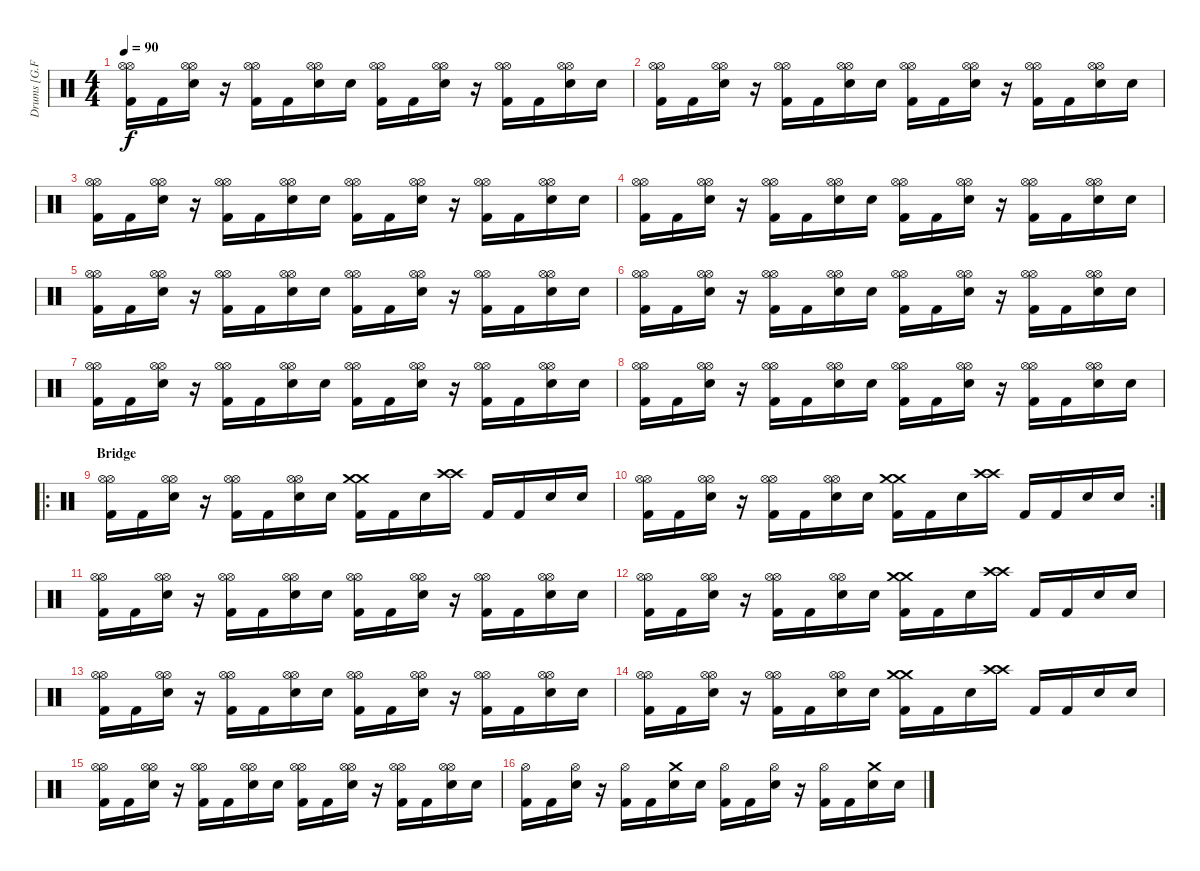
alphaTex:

\track ("Drums [G.Fish]" "Drums [G.F") {instrument percussion}
\staff {score}
\articulation defaults
\ts (4 4)
\tempo 90
\clef neutral
\ks c
("Hi-Hat (open)" "Hi-Hat (open)" "Kick (hit) 2").16{dy f} "Kick (hit) 2".16 ("Hi-Hat (open)" "Hi-Hat (open)" "Snare (hit) 2").16 r.16 ("Hi-Hat (open)" "Hi-Hat (open)" "Kick (hit) 2").16 "Kick (hit) 2".16 ("Hi-Hat (open)" "Hi-Hat (open)" "Snare (hit) 2").16 "Snare (hit) 2".16 ("Hi-Hat (open)" "Hi-Hat (open)" "Kick (hit) 2").16 "Kick (hit) 2".16 ("Hi-Hat (open)" "Hi-Hat (open)" "Snare (hit) 2").16 r.16 ("Hi-Hat (open)" "Hi-Hat (open)" "Kick (hit) 2").16 "Kick (hit) 2".16 ("Hi-Hat (open)" "Hi-Hat (open)" "Snare (hit) 2").16 "Snare (hit) 2".16 |
("Hi-Hat (open)" "Hi-Hat (open)" "Kick (hit) 2").16 "Kick (hit) 2".16 ("Hi-Hat (open)" "Hi-Hat (open)" "Snare (hit) 2").16 r.16 ("Hi-Hat (open)" "Hi-Hat (open)" "Kick (hit) 2").16 "Kick (hit) 2".16 ("Hi-Hat (open)" "Hi-Hat (open)" "Snare (hit) 2").16 "Snare (hit) 2".16 ("Hi-Hat (open)" "Hi-Hat (open)" "Kick (hit) 2").16 "Kick (hit) 2".16 ("Hi-Hat (open)" "Hi-Hat (open)" "Snare (hit) 2").16 r.16 ("Hi-Hat (open)" "Hi-Hat (open)" "Kick (hit) 2").16 "Kick (hit) 2".16 ("Hi-Hat (open)" "Hi-Hat (open)" "Snare (hit) 2").16 "Snare (hit) 2".16 |
("Hi-Hat (open)" "Hi-Hat (open)" "Kick (hit) 2").16 "Kick (hit) 2".16 ("Hi-Hat (open)" "Hi-Hat (open)" "Snare (hit) 2").16 r.16 ("Hi-Hat (open)" "Hi-Hat (open)" "Kick (hit) 2").16 "Kick (hit) 2".16 ("Hi-Hat (open)" "Hi-Hat (open)" "Snare (hit) 2").16 "Snare (hit) 2".16 ("Hi-Hat (open)" "Hi-Hat (open)" "Kick (hit) 2").16 "Kick (hit) 2".16 ("Hi-Hat (open)" "Hi-Hat (open)" "Snare (hit) 2").16 r.16 ("Hi-Hat (open)" "Hi-Hat (open)" "Kick (hit) 2").16 "Kick (hit) 2".16 ("Hi-Hat (open)" "Hi-Hat (open)" "Snare (hit) 2").16 "Snare (hit) 2".16 |
("Hi-Hat (open)" "Hi-Hat (open)" "Kick (hit) 2").16 "Kick (hit) 2".16 ("Hi-Hat (open)" "Hi-Hat (open)" "Snare (hit) 2").16 r.16 ("Hi-Hat (open)" "Hi-Hat (open)" "Kick (hit) 2").16 "Kick (hit) 2".16 ("Hi-Hat (open)" "Hi-Hat (open)" "Snare (hit) 2").16 "Snare (hit) 2".16 ("Hi-Hat (open)" "Hi-Hat (open)" "Kick (hit) 2").16 "Kick (hit) 2".16 ("Hi-Hat (open)" "Hi-Hat (open)" "Snare (hit) 2").16 r.16 ("Hi-Hat (open)" "Hi-Hat (open)" "Kick (hit) 2").16 "Kick (hit) 2".16 ("Hi-Hat (open)" "Hi-Hat (open)" "Snare (hit) 2").16 "Snare (hit) 2".16 |
("Hi-Hat (open)" "Hi-Hat (open)" "Kick (hit) 2").16 "Kick (hit) 2".16 ("Hi-Hat (open)" "Hi-Hat (open)" "Snare (hit) 2").16 r.16 ("Hi-Hat (open)" "Hi-Hat (open)" "Kick (hit) 2").16 "Kick (hit) 2".16 ("Hi-Hat (open)" "Hi-Hat (open)" "Snare (hit) 2").16 "Snare (hit) 2".16 ("Hi-Hat (open)" "Hi-Hat (open)" "Kick (hit) 2").16 "Kick (hit) 2".16 ("Hi-Hat (open)" "Hi-Hat (open)" "Snare (hit) 2").16 r.16 ("Hi-Hat (open)" "Hi-Hat (open)" "Kick (hit) 2").16 "Kick (hit) 2".16 ("Hi-Hat (open)" "Hi-Hat (open)" "Snare (hit) 2").16 "Snare (hit) 2".16 |
("Hi-Hat (open)" "Hi-Hat (open)" "Kick (hit) 2").16 "Kick (hit) 2".16 ("Hi-Hat (open)" "Hi-Hat (open)" "Snare (hit) 2").16 r.16 ("Hi-Hat (open)" "Hi-Hat (open)" "Kick (hit) 2").16 "Kick (hit) 2".16 ("Hi-Hat (open)" "Hi-Hat (open)" "Snare (hit) 2").16 "Snare (hit) 2".16 ("Hi-Hat (open)" "Hi-Hat (open)" "Kick (hit) 2").16 "Kick (hit) 2".16 ("Hi-Hat (open)" "Hi-Hat (open)" "Snare (hit) 2").16 r.16 ("Hi-Hat (open)" "Hi-Hat (open)" "Kick (hit) 2").16 "Kick (hit) 2".16 ("Hi-Hat (open)" "Hi-Hat (open)" "Snare (hit) 2").16 "Snare (hit) 2".16 |
("Hi-Hat (open)" "Hi-Hat (open)" "Kick (hit) 2").16 "Kick (hit) 2".16 ("Hi-Hat (open)" "Hi-Hat (open)" "Snare (hit) 2").16 r.16 ("Hi-Hat (open)" "Hi-Hat (open)" "Kick (hit) 2").16 "Kick (hit) 2".16 ("Hi-Hat (open)" "Hi-Hat (open)" "Snare (hit) 2").16 "Snare (hit) 2".16 ("Hi-Hat (open)" "Hi-Hat (open)" "Kick (hit) 2").16 "Kick (hit) 2".16 ("Hi-Hat (open)" "Hi-Hat (open)" "Snare (hit) 2").16 r.16 ("Hi-Hat (open)" "Hi-Hat (open)" "Kick (hit) 2").16 "Kick (hit) 2".16 ("Hi-Hat (open)" "Hi-Hat (open)" "Snare (hit) 2").16 "Snare (hit) 2".16 |
("Hi-Hat (open)" "Hi-Hat (open)" "Kick (hit) 2").16 "Kick (hit) 2".16 ("Hi-Hat (open)" "Hi-Hat (open)" "Snare (hit) 2").16 r.16 ("Hi-Hat (open)" "Hi-Hat (open)" "Kick (hit) 2").16 "Kick (hit) 2".16 ("Hi-Hat (open)" "Hi-Hat (open)" "Snare (hit) 2").16 "Snare (hit) 2".16 ("Hi-Hat (open)" "Hi-Hat (open)" "Kick (hit) 2").16 "Kick (hit) 2".16 ("Hi-Hat (open)" "Hi-Hat (open)" "Snare (hit) 2").16 r.16 ("Hi-Hat (open)" "Hi-Hat (open)" "Kick (hit) 2").16 "Kick (hit) 2".16 ("Hi-Hat (open)" "Hi-Hat (open)" "Snare (hit) 2").16 "Snare (hit) 2".16 |
\ro
\section ("" "Bridge")
("Hi-Hat (open)" "Hi-Hat (open)" "Kick (hit) 2").16 "Kick (hit) 2".16 ("Hi-Hat (open)" "Hi-Hat (open)" "Snare (hit) 2").16 r.16 ("Hi-Hat (open)" "Hi-Hat (open)" "Kick (hit) 2").16 "Kick (hit) 2".16 ("Hi-Hat (open)" "Hi-Hat (open)" "Snare (hit) 2").16 "Snare (hit) 2".16 ("Crash medium (hit)" "Crash medium (hit)" "Kick (hit) 2").16 "Kick (hit) 2".16 "Snare (hit) 2".16 ("Crash high (hit)" "Crash high (hit)").16 "Kick (hit) 2".16 "Kick (hit) 2".16 "Snare (hit) 2".16 "Snare (hit) 2".16 |
\rc 2
("Hi-Hat (open)" "Hi-Hat (open)" "Kick (hit) 2").16 "Kick (hit) 2".16 ("Hi-Hat (open)" "Hi-Hat (open)" "Snare (hit) 2").16 r.16 ("Hi-Hat (open)" "Hi-Hat (open)" "Kick (hit) 2").16 "Kick (hit) 2".16 ("Hi-Hat (open)" "Hi-Hat (open)" "Snare (hit) 2").16 "Snare (hit) 2".16 ("Crash medium (hit)" "Crash medium (hit)" "Kick (hit) 2").16 "Kick (hit) 2".16 "Snare (hit) 2".16 ("Crash high (hit)" "Crash high (hit)").16 "Kick (hit) 2".16 "Kick (hit) 2".16 "Snare (hit) 2".16 "Snare (hit) 2".16 |
("Hi-Hat (open)" "Hi-Hat (open)" "Kick (hit) 2").16 "Kick (hit) 2".16 ("Hi-Hat (open)" "Hi-Hat (open)" "Snare (hit) 2").16 r.16 ("Hi-Hat (open)" "Hi-Hat (open)" "Kick (hit) 2").16 "Kick (hit) 2".16 ("Hi-Hat (open)" "Hi-Hat (open)" "Snare (hit) 2").16 "Snare (hit) 2".16 ("Hi-Hat (open)" "Hi-Hat (open)" "Kick (hit) 2").16 "Kick (hit) 2".16 ("Hi-Hat (open)" "Hi-Hat (open)" "Snare (hit) 2").16 r.16 ("Hi-Hat (open)" "Hi-Hat (open)" "Kick (hit) 2").16 "Kick (hit) 2".16 ("Hi-Hat (open)" "Hi-Hat (open)" "Snare (hit) 2").16 "Snare (hit) 2".16 |
("Hi-Hat (open)" "Hi-Hat (open)" "Kick (hit) 2").16 "Kick (hit) 2".16 ("Hi-Hat (open)" "Hi-Hat (open)" "Snare (hit) 2").16 r.16 ("Hi-Hat (open)" "Hi-Hat (open)" "Kick (hit) 2").16 "Kick (hit) 2".16 ("Hi-Hat (open)" "Hi-Hat (open)" "Snare (hit) 2").16 "Snare (hit) 2".16 ("Crash medium (hit)" "Crash medium (hit)" "Kick (hit) 2").16 "Kick (hit) 2".16 "Snare (hit) 2".16 ("Crash high (hit)" "Crash high (hit)").16 "Kick (hit) 2".16 "Kick (hit) 2".16 "Snare (hit) 2".16 "Snare (hit) 2".16 |
("Hi-Hat (open)" "Hi-Hat (open)" "Kick (hit) 2").16 "Kick (hit) 2".16 ("Hi-Hat (open)" "Hi-Hat (open)" "Snare (hit) 2").16 r.16 ("Hi-Hat (open)" "Hi-Hat (open)" "Kick (hit) 2").16 "Kick (hit) 2".16 ("Hi-Hat (open)" "Hi-Hat (open)" "Snare (hit) 2").16 "Snare (hit) 2".16 ("Hi-Hat (open)" "Hi-Hat (open)" "Kick (hit) 2").16 "Kick (hit) 2".16 ("Hi-Hat (open)" "Hi-Hat (open)" "Snare (hit) 2").16 r.16 ("Hi-Hat (open)" "Hi-Hat (open)" "Kick (hit) 2").16 "Kick (hit) 2".16 ("Hi-Hat (open)" "Hi-Hat (open)" "Snare (hit) 2").16 "Snare (hit) 2".16 |
("Hi-Hat (open)" "Hi-Hat (open)" "Kick (hit) 2").16 "Kick (hit) 2".16 ("Hi-Hat (open)" "Hi-Hat (open)" "Snare (hit) 2").16 r.16 ("Hi-Hat (open)" "Hi-Hat (open)" "Kick (hit) 2").16 "Kick (hit) 2".16 ("Hi-Hat (open)" "Hi-Hat (open)" "Snare (hit) 2").16 "Snare (hit) 2".16 ("Crash medium (hit)" "Crash medium (hit)" "Kick (hit) 2").16 "Kick (hit) 2".16 "Snare (hit) 2".16 ("Crash high (hit)" "Crash high (hit)").16 "Kick (hit) 2".16 "Kick (hit) 2".16 "Snare (hit) 2".16 "Snare (hit) 2".16 |
("Hi-Hat (open)" "Hi-Hat (open)" "Kick (hit) 2").16 "Kick (hit) 2".16 ("Hi-Hat (open)" "Hi-Hat (open)" "Snare (hit) 2").16 r.16 ("Hi-Hat (open)" "Hi-Hat (open)" "Kick (hit) 2").16 "Kick (hit) 2".16 ("Hi-Hat (open)" "Hi-Hat (open)" "Snare (hit) 2").16 "Snare (hit) 2".16 ("Hi-Hat (open)" "Hi-Hat (open)" "Kick (hit) 2").16 "Kick (hit) 2".16 ("Hi-Hat (open)" "Hi-Hat (open)" "Snare (hit) 2").16 r.16 ("Hi-Hat (open)" "Hi-Hat (open)" "Kick (hit) 2").16 "Kick (hit) 2".16 ("Hi-Hat (open)" "Hi-Hat (open)" "Snare (hit) 2").16 "Snare (hit) 2".16 |
("Hi-Hat (open)" "Kick (hit) 2").16 "Kick (hit) 2".16 ("Hi-Hat (open)" "Snare (hit) 2").16 r.16 ("Hi-Hat (open)" "Kick (hit) 2").16 "Kick (hit) 2".16 ("Crash medium (hit)" "Snare (hit) 2").16 "Snare (hit) 2".16 ("Hi-Hat (open)" "Kick (hit) 2").16 "Kick (hit) 2".16 ("Hi-Hat (open)" "Snare (hit) 2").16 r.16 ("Hi-Hat (open)" "Kick (hit) 2").16 "Kick (hit) 2".16 ("Crash medium (hit)" "Snare (hit) 2").16 "Snare (hit) 2".16
